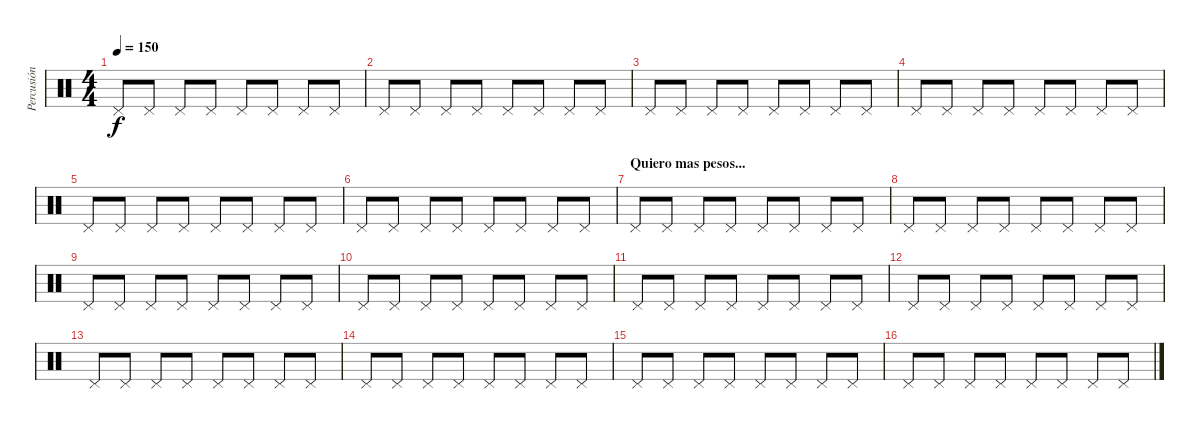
\track ("Percusión" "Percusión") {instrument percussion}
\staff {score}
\articulation defaults
\ts (4 4)
\tempo 150
\clef neutral
\ks c "Pedal Hi-Hat (hit)".8{dy f} "Pedal Hi-Hat (hit)".8 "Pedal Hi-Hat (hit)".8 "Pedal Hi-Hat (hit)".8 "Pedal Hi-Hat (hit)".8 "Pedal Hi-Hat (hit)".8 "Pedal Hi-Hat (hit)".8 "Pedal Hi-Hat (hit)".8
|
"Pedal Hi-Hat (hit)".8 "Pedal Hi-Hat (hit)".8 "Pedal Hi-Hat (hit)".8 "Pedal Hi-Hat (hit)".8 "Pedal Hi-Hat (hit)".8 "Pedal Hi-Hat (hit)".8 "Pedal Hi-Hat (hit)".8 "Pedal Hi-Hat (hit)".8 |
"Pedal Hi-Hat (hit)".8 "Pedal Hi-Hat (hit)".8 "Pedal Hi-Hat (hit)".8 "Pedal Hi-Hat (hit)".8 "Pedal Hi-Hat (hit)".8 "Pedal Hi-Hat (hit)".8 "Pedal Hi-Hat (hit)".8 "Pedal Hi-Hat (hit)".8 |
"Pedal Hi-Hat (hit)".8 "Pedal Hi-Hat (hit)".8 "Pedal Hi-Hat (hit)".8 "Pedal Hi-Hat (hit)".8 "Pedal Hi-Hat (hit)".8 "Pedal Hi-Hat (hit)".8 "Pedal Hi-Hat (hit)".8 "Pedal Hi-Hat (hit)".8 |
"Pedal Hi-Hat (hit)".8 "Pedal Hi-Hat (hit)".8 "Pedal Hi-Hat (hit)".8 "Pedal Hi-Hat (hit)".8 "Pedal Hi-Hat (hit)".8 "Pedal Hi-Hat (hit)".8 "Pedal Hi-Hat (hit)".8 "Pedal Hi-Hat (hit)".8 |
"Pedal Hi-Hat (hit)".8 "Pedal Hi-Hat (hit)".8 "Pedal Hi-Hat (hit)".8 "Pedal Hi-Hat (hit)".8 "Pedal Hi-Hat (hit)".8 "Pedal Hi-Hat (hit)".8 "Pedal Hi-Hat (hit)".8 "Pedal Hi-Hat (hit)".8 |
\section ("" "Quiero mas pesos...")
"Pedal Hi-Hat (hit)".8 "Pedal Hi-Hat (hit)".8 "Pedal Hi-Hat (hit)".8 "Pedal Hi-Hat (hit)".8 "Pedal Hi-Hat (hit)".8 "Pedal Hi-Hat (hit)".8 "Pedal Hi-Hat (hit)".8 "Pedal Hi-Hat (hit)".8 |
"Pedal Hi-Hat (hit)".8 "Pedal Hi-Hat (hit)".8 "Pedal Hi-Hat (hit)".8 "Pedal Hi-Hat (hit)".8 "Pedal Hi-Hat (hit)".8 "Pedal Hi-Hat (hit)".8 "Pedal Hi-Hat (hit)".8 "Pedal Hi-Hat (hit)".8 |
"Pedal Hi-Hat (hit)".8 "Pedal Hi-Hat (hit)".8 "Pedal Hi-Hat (hit)".8 "Pedal Hi-Hat (hit)".8 "Pedal Hi-Hat (hit)".8 "Pedal Hi-Hat (hit)".8 "Pedal Hi-Hat (hit)".8 "Pedal Hi-Hat (hit)".8 |
"Pedal Hi-Hat (hit)".8 "Pedal Hi-Hat (hit)".8 "Pedal Hi-Hat (hit)".8 "Pedal Hi-Hat (hit)".8 "Pedal Hi-Hat (hit)".8 "Pedal Hi-Hat (hit)".8 "Pedal Hi-Hat (hit)".8 "Pedal Hi-Hat (hit)".8 |
"Pedal Hi-Hat (hit)".8 "Pedal Hi-Hat (hit)".8 "Pedal Hi-Hat (hit)".8 "Pedal Hi-Hat (hit)".8 "Pedal Hi-Hat (hit)".8 "Pedal Hi-Hat (hit)".8 "Pedal Hi-Hat (hit)".8 "Pedal Hi-Hat (hit)".8 |
"Pedal Hi-Hat (hit)".8 "Pedal Hi-Hat (hit)".8 "Pedal Hi-Hat (hit)".8 "Pedal Hi-Hat (hit)".8 "Pedal Hi-Hat (hit)".8 "Pedal Hi-Hat (hit)".8 "Pedal Hi-Hat (hit)".8 "Pedal Hi-Hat (hit)".8 |
"Pedal Hi-Hat (hit)".8 "Pedal Hi-Hat (hit)".8 "Pedal Hi-Hat (hit)".8 "Pedal Hi-Hat (hit)".8 "Pedal Hi-Hat (hit)".8 "Pedal Hi-Hat (hit)".8 "Pedal Hi-Hat (hit)".8 "Pedal Hi-Hat (hit)".8 |
"Pedal Hi-Hat (hit)".8 "Pedal Hi-Hat (hit)".8 "Pedal Hi-Hat (hit)".8 "Pedal Hi-Hat (hit)".8 "Pedal Hi-Hat (hit)".8 "Pedal Hi-Hat (hit)".8 "Pedal Hi-Hat (hit)".8 "Pedal Hi-Hat (hit)".8 |
"Pedal Hi-Hat (hit)".8 "Pedal Hi-Hat (hit)".8 "Pedal Hi-Hat (hit)".8 "Pedal Hi-Hat (hit)".8 "Pedal Hi-Hat (hit)".8 "Pedal Hi-Hat (hit)".8 "Pedal Hi-Hat (hit)".8 "Pedal Hi-Hat (hit)".8 |
"Pedal Hi-Hat (hit)".8 "Pedal Hi-Hat (hit)".8 "Pedal Hi-Hat (hit)".8 "Pedal Hi-Hat (hit)".8 "Pedal Hi-Hat (hit)".8 "Pedal Hi-Hat (hit)".8 "Pedal Hi-Hat (hit)".8 "Pedal Hi-Hat (hit)".8
